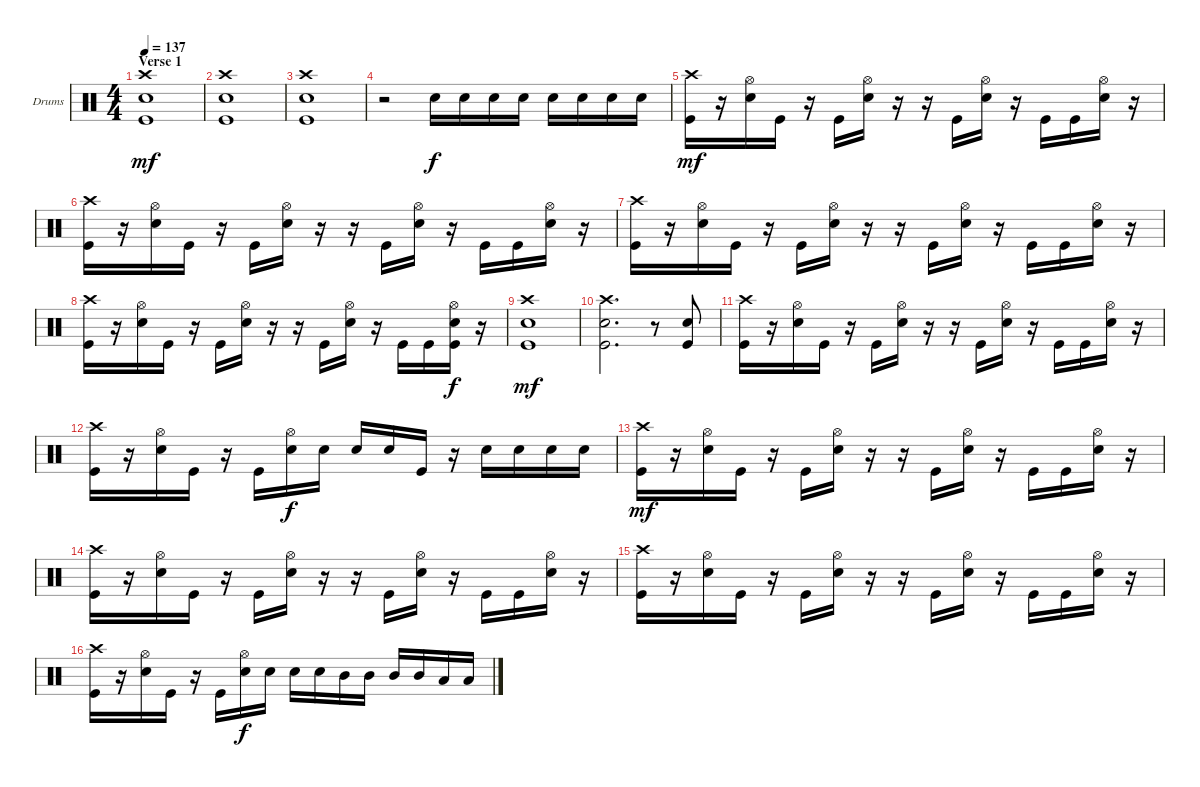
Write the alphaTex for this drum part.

\defaultSystemsLayout 4
\bracketExtendMode groupsimilarinstruments
\firstSystemTrackNameOrientation horizontal
\otherSystemsTrackNameOrientation horizontal
\track ("Drumkit - Paul" "Drums") {instrument percussion}
\staff {score}
\articulation defaults
\ts (4 4)
\section ("" "Verse 1")
\tempo 137
\clef neutral
\ks c
("Kick (hit)" "Snare (hit) 2" "Crash high (hit)").1{dy mf} |
("Kick (hit)" "Snare (hit) 2" "Crash high (hit)").1 |
("Kick (hit)" "Snare (hit) 2" "Crash high (hit)").1 |
r.2 "Snare (hit) 2".16{dy f} "Snare (hit) 2".16 "Snare (hit) 2".16 "Snare (hit) 2".16 "Snare (hit) 2".16 "Snare (hit) 2".16 "Snare (hit) 2".16 "Snare (hit) 2".16 |
("Crash high (hit)" "Kick (hit)").16{dy mf} r.16 ("Snare (hit) 2" "Hi-Hat (open)").16 "Kick (hit)".16 r.16 "Kick (hit)".16 ("Snare (hit) 2" "Hi-Hat (open)").16 r.16 r.16 "Kick (hit)".16 ("Snare (hit) 2" "Hi-Hat (open)").16 r.16 "Kick (hit)".16 "Kick (hit)".16 ("Snare (hit) 2" "Hi-Hat (open)").16 r.16 |
("Crash high (hit)" "Kick (hit)").16 r.16 ("Snare (hit) 2" "Hi-Hat (open)").16 "Kick (hit)".16 r.16 "Kick (hit)".16 ("Snare (hit) 2" "Hi-Hat (open)").16 r.16 r.16 "Kick (hit)".16 ("Snare (hit) 2" "Hi-Hat (open)").16 r.16 "Kick (hit)".16 "Kick (hit)".16 ("Snare (hit) 2" "Hi-Hat (open)").16 r.16 |
("Crash high (hit)" "Kick (hit)").16 r.16 ("Snare (hit) 2" "Hi-Hat (open)").16 "Kick (hit)".16 r.16 "Kick (hit)".16 ("Snare (hit) 2" "Hi-Hat (open)").16 r.16 r.16 "Kick (hit)".16 ("Snare (hit) 2" "Hi-Hat (open)").16 r.16 "Kick (hit)".16 "Kick (hit)".16 ("Snare (hit) 2" "Hi-Hat (open)").16 r.16 |
("Crash high (hit)" "Kick (hit)").16 r.16 ("Snare (hit) 2" "Hi-Hat (open)").16 "Kick (hit)".16 r.16 "Kick (hit)".16 ("Snare (hit) 2" "Hi-Hat (open)").16 r.16 r.16 "Kick (hit)".16 ("Snare (hit) 2" "Hi-Hat (open)").16 r.16 "Kick (hit)".16 "Kick (hit)".16 ("Snare (hit) 2" "Hi-Hat (open)" "Kick (hit)").16{dy f} r.16 |
("Kick (hit)" "Snare (hit) 2" "Crash high (hit)").1{dy mf} |
("Kick (hit)" "Snare (hit) 2" "Crash high (hit)").2{d} r.8 ("Kick (hit)" "Snare (hit) 2").8 |
("Crash high (hit)" "Kick (hit)").16 r.16 ("Snare (hit) 2" "Hi-Hat (open)").16 "Kick (hit)".16 r.16 "Kick (hit)".16 ("Snare (hit) 2" "Hi-Hat (open)").16 r.16 r.16 "Kick (hit)".16 ("Snare (hit) 2" "Hi-Hat (open)").16 r.16 "Kick (hit)".16 "Kick (hit)".16 ("Snare (hit) 2" "Hi-Hat (open)").16 r.16 |
("Crash high (hit)" "Kick (hit)").16 r.16 ("Snare (hit) 2" "Hi-Hat (open)").16 "Kick (hit)".16 r.16 "Kick (hit)".16 ("Snare (hit) 2" "Hi-Hat (open)").16{dy f} "Snare (hit) 2".16 "Snare (hit) 2".16 "Snare (hit) 2".16 "Kick (hit)".16 r.16 "Snare (hit) 2".16 "Snare (hit) 2".16 "Snare (hit) 2".16 "Snare (hit) 2".16 |
("Crash high (hit)" "Kick (hit)").16{dy mf} r.16 ("Snare (hit) 2" "Hi-Hat (open)").16 "Kick (hit)".16 r.16 "Kick (hit)".16 ("Snare (hit) 2" "Hi-Hat (open)").16 r.16 r.16 "Kick (hit)".16 ("Snare (hit) 2" "Hi-Hat (open)").16 r.16 "Kick (hit)".16 "Kick (hit)".16 ("Snare (hit) 2" "Hi-Hat (open)").16 r.16 |
("Crash high (hit)" "Kick (hit)").16 r.16 ("Snare (hit) 2" "Hi-Hat (open)").16 "Kick (hit)".16 r.16 "Kick (hit)".16 ("Snare (hit) 2" "Hi-Hat (open)").16 r.16 r.16 "Kick (hit)".16 ("Snare (hit) 2" "Hi-Hat (open)").16 r.16 "Kick (hit)".16 "Kick (hit)".16 ("Snare (hit) 2" "Hi-Hat (open)").16 r.16 |
("Crash high (hit)" "Kick (hit)").16 r.16 ("Snare (hit) 2" "Hi-Hat (open)").16 "Kick (hit)".16 r.16 "Kick (hit)".16 ("Snare (hit) 2" "Hi-Hat (open)").16 r.16 r.16 "Kick (hit)".16 ("Snare (hit) 2" "Hi-Hat (open)").16 r.16 "Kick (hit)".16 "Kick (hit)".16 ("Snare (hit) 2" "Hi-Hat (open)").16 r.16 |
("Crash high (hit)" "Kick (hit)").16 r.16 ("Snare (hit) 2" "Hi-Hat (open)").16 "Kick (hit)".16 r.16 "Kick (hit)".16 ("Snare (hit) 2" "Hi-Hat (open)").16{dy f} "Snare (hit) 2".16 "Snare (hit) 2".16 "Snare (hit) 2".16 "Mid Tom (hit)".16 "Mid Tom (hit)".16 "Mid Tom (hit)".16 "Mid Tom (hit)".16 "Low Tom (hit)".16 "Low Tom (hit)".16
